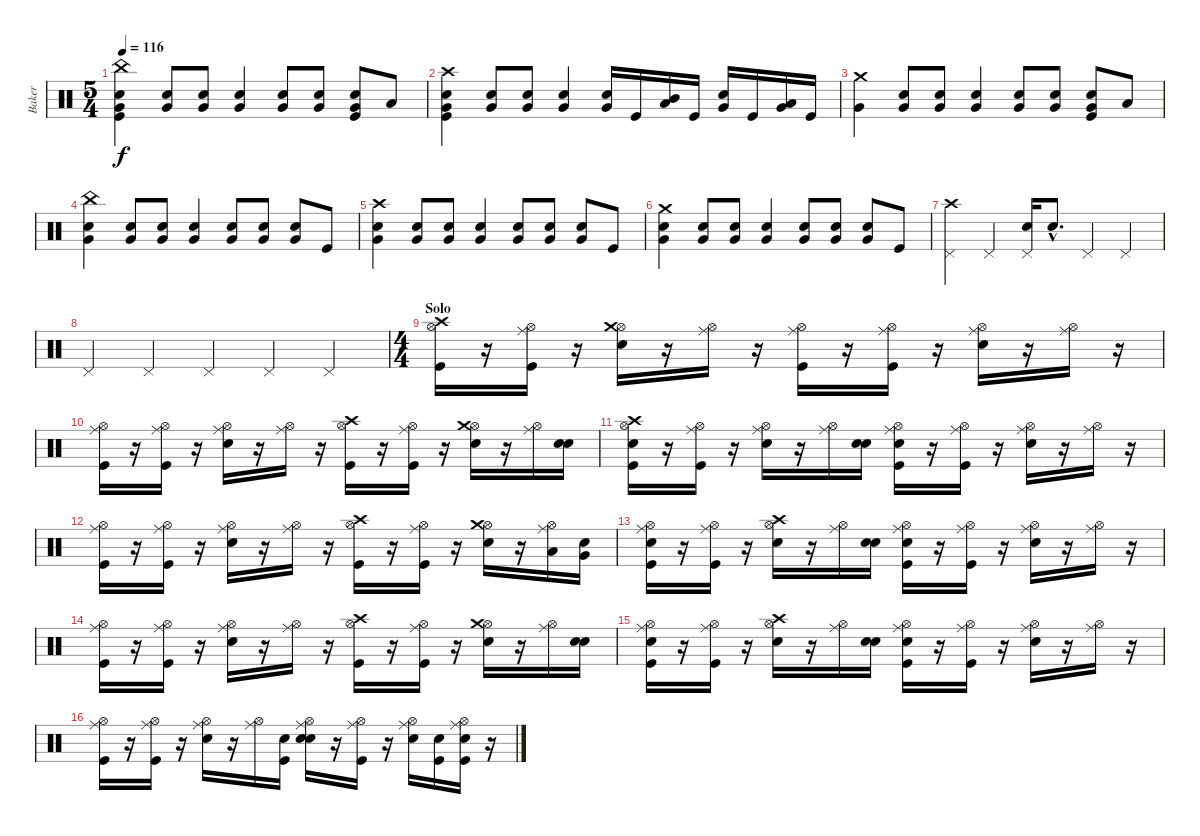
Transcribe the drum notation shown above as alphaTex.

\track ("Baker" "Baker") {instrument percussion}
\staff {score}
\articulation defaults
\ts (5 4)
\tempo 116
\clef neutral
\ks c
("Kick (hit)" "Electric Snare (hit)" "Very Low Tom (hit)" "China (hit)").4{dy f} ("Electric Snare (hit)" "Very Low Tom (hit)").8 ("Electric Snare (hit)" "Very Low Tom (hit)").8 ("Electric Snare (hit)" "Very Low Tom (hit)").4 ("Electric Snare (hit)" "Very Low Tom (hit)").8 ("Electric Snare (hit)" "Very Low Tom (hit)").8 ("Kick (hit)" "Electric Snare (hit)" "Very Low Tom (hit)").8 "Low Floor Tom (hit)".8 |
("Kick (hit)" "Electric Snare (hit)" "Very Low Tom (hit)" "Crash high (hit)").4 ("Electric Snare (hit)" "Very Low Tom (hit)").8 ("Electric Snare (hit)" "Very Low Tom (hit)").8 ("Electric Snare (hit)" "Very Low Tom (hit)").4 ("Electric Snare (hit)" "Very Low Tom (hit)").16 "Kick (hit)".16 ("Low Tom (hit)" "Mid Tom (hit)").16 "Kick (hit)".16 ("Electric Snare (hit)" "Very Low Tom (hit)").16 "Kick (hit)".16 ("Low Floor Tom (hit)" "Very Low Tom (hit)").16 "Kick (hit)".16 |
("Very Low Tom (hit)" "Crash medium (hit)").4 ("Electric Snare (hit)" "Very Low Tom (hit)").8 ("Electric Snare (hit)" "Very Low Tom (hit)").8 ("Electric Snare (hit)" "Very Low Tom (hit)").4 ("Electric Snare (hit)" "Very Low Tom (hit)").8 ("Electric Snare (hit)" "Very Low Tom (hit)").8 ("Kick (hit)" "Electric Snare (hit)" "Very Low Tom (hit)").8 "Low Floor Tom (hit)".8 |
("Electric Snare (hit)" "Very Low Tom (hit)" "China (hit)").4 ("Electric Snare (hit)" "Very Low Tom (hit)").8 ("Electric Snare (hit)" "Very Low Tom (hit)").8 ("Electric Snare (hit)" "Very Low Tom (hit)").4 ("Electric Snare (hit)" "Very Low Tom (hit)").8 ("Electric Snare (hit)" "Very Low Tom (hit)").8 ("Electric Snare (hit)" "Very Low Tom (hit)").8 "Kick (hit)".8 |
("Electric Snare (hit)" "Very Low Tom (hit)" "Crash high (hit)").4 ("Electric Snare (hit)" "Very Low Tom (hit)").8 ("Electric Snare (hit)" "Very Low Tom (hit)").8 ("Electric Snare (hit)" "Very Low Tom (hit)").4 ("Electric Snare (hit)" "Very Low Tom (hit)").8 ("Electric Snare (hit)" "Very Low Tom (hit)").8 ("Electric Snare (hit)" "Very Low Tom (hit)").8 "Kick (hit)".8 |
("Electric Snare (hit)" "Very Low Tom (hit)" "Crash medium (hit)").4 ("Electric Snare (hit)" "Very Low Tom (hit)").8 ("Electric Snare (hit)" "Very Low Tom (hit)").8 ("Electric Snare (hit)" "Very Low Tom (hit)").4 ("Electric Snare (hit)" "Very Low Tom (hit)").8 ("Electric Snare (hit)" "Very Low Tom (hit)").8 ("Electric Snare (hit)" "Very Low Tom (hit)").8 "Kick (hit)".8 |
("Pedal Hi-Hat (hit)" "Crash high (hit)").4 "Pedal Hi-Hat (hit)".4 ("Electric Snare (hit)" "Pedal Hi-Hat (hit)").16 "Electric Snare (hit)"{hac}.8{d} "Pedal Hi-Hat (hit)".4 "Pedal Hi-Hat (hit)".4 |
"Pedal Hi-Hat (hit)".4 "Pedal Hi-Hat (hit)".4 "Pedal Hi-Hat (hit)".4 "Pedal Hi-Hat (hit)".4 "Pedal Hi-Hat (hit)".4 |
\ts (4 4)
\section ("" "Solo")
("Kick (hit)" "Hi-Hat (open)" "Crash high (hit)").16 r.16 ("Kick (hit)" "Hi-Hat (open)" "Ride (middle)").16 r.16 ("Electric Snare (hit)" "Hi-Hat (open)" "Crash medium (hit)").16 r.16 ("Hi-Hat (open)" "Ride (middle)").16 r.16 ("Kick (hit)" "Hi-Hat (open)" "Ride (middle)").16 r.16 ("Kick (hit)" "Hi-Hat (open)" "Ride (middle)").16 r.16 ("Electric Snare (hit)" "Hi-Hat (open)" "Ride (middle)").16 r.16 ("Hi-Hat (open)" "Ride (middle)").16 r.16 |
("Kick (hit)" "Hi-Hat (open)" "Ride (middle)").16 r.16 ("Kick (hit)" "Hi-Hat (open)" "Ride (middle)").16 r.16 ("Electric Snare (hit)" "Hi-Hat (open)" "Ride (middle)").16 r.16 ("Hi-Hat (open)" "Ride (middle)").16 r.16 ("Kick (hit)" "Hi-Hat (open)" "Crash high (hit)").16 r.16 ("Kick (hit)" "Hi-Hat (open)" "Ride (middle)").16 r.16 ("Electric Snare (hit)" "Hi-Hat (open)" "Crash medium (hit)").16 r.16 ("Hi-Hat (open)" "Ride (middle)").16 ("Snare (hit)" "Electric Snare (hit)").16 |
("Snare (hit)" "Kick (hit)" "Hi-Hat (open)" "Crash high (hit)").16 r.16 ("Kick (hit)" "Hi-Hat (open)" "Ride (middle)").16 r.16 ("Electric Snare (hit)" "Hi-Hat (open)" "Ride (middle)").16 r.16 ("Hi-Hat (open)" "Ride (middle)").16 ("Snare (hit)" "Electric Snare (hit)").16 ("Snare (hit)" "Kick (hit)" "Hi-Hat (open)" "Ride (middle)").16 r.16 ("Kick (hit)" "Hi-Hat (open)" "Ride (middle)").16 r.16 ("Electric Snare (hit)" "Hi-Hat (open)" "Ride (middle)").16 r.16 ("Hi-Hat (open)" "Ride (middle)").16 r.16 |
("Kick (hit)" "Hi-Hat (open)" "Ride (middle)").16 r.16 ("Kick (hit)" "Hi-Hat (open)" "Ride (middle)").16 r.16 ("Electric Snare (hit)" "Hi-Hat (open)" "Ride (middle)").16 r.16 ("Hi-Hat (open)" "Ride (middle)").16 r.16 ("Kick (hit)" "Hi-Hat (open)" "Crash high (hit)").16 r.16 ("Kick (hit)" "Hi-Hat (open)" "Ride (middle)").16 r.16 ("Electric Snare (hit)" "Hi-Hat (open)" "Crash medium (hit)").16 r.16 ("Low Tom (hit)" "Hi-Hat (open)" "Ride (middle)").16 ("Snare (hit)" "Very Low Tom (hit)").16 |
("Snare (hit)" "Kick (hit)" "Hi-Hat (open)" "Ride (middle)").16 r.16 ("Kick (hit)" "Hi-Hat (open)" "Ride (middle)").16 r.16 ("Electric Snare (hit)" "Hi-Hat (open)" "Crash high (hit)").16 r.16 ("Hi-Hat (open)" "Ride (middle)").16 ("Snare (hit)" "Electric Snare (hit)").16 ("Snare (hit)" "Kick (hit)" "Hi-Hat (open)" "Ride (middle)").16 r.16 ("Kick (hit)" "Hi-Hat (open)" "Ride (middle)").16 r.16 ("Electric Snare (hit)" "Hi-Hat (open)" "Ride (middle)").16 r.16 ("Hi-Hat (open)" "Ride (middle)").16 r.16 |
("Kick (hit)" "Hi-Hat (open)" "Ride (middle)").16 r.16 ("Kick (hit)" "Hi-Hat (open)" "Ride (middle)").16 r.16 ("Electric Snare (hit)" "Hi-Hat (open)" "Ride (middle)").16 r.16 ("Hi-Hat (open)" "Ride (middle)").16 r.16 ("Kick (hit)" "Hi-Hat (open)" "Crash high (hit)").16 r.16 ("Kick (hit)" "Hi-Hat (open)" "Ride (middle)").16 r.16 ("Electric Snare (hit)" "Hi-Hat (open)" "Crash medium (hit)").16 r.16 ("Hi-Hat (open)" "Ride (middle)").16 ("Snare (hit)" "Electric Snare (hit)").16 |
("Snare (hit)" "Kick (hit)" "Hi-Hat (open)" "Ride (middle)").16 r.16 ("Kick (hit)" "Hi-Hat (open)" "Ride (middle)").16 r.16 ("Electric Snare (hit)" "Hi-Hat (open)" "Crash high (hit)").16 r.16 ("Hi-Hat (open)" "Ride (middle)").16 ("Snare (hit)" "Electric Snare (hit)").16 ("Snare (hit)" "Kick (hit)" "Hi-Hat (open)" "Ride (middle)").16 r.16 ("Kick (hit)" "Hi-Hat (open)" "Ride (middle)").16 r.16 ("Electric Snare (hit)" "Hi-Hat (open)" "Ride (middle)").16 r.16 ("Hi-Hat (open)" "Ride (middle)").16 r.16 |
("Kick (hit)" "Hi-Hat (open)" "Ride (middle)").16 r.16 ("Kick (hit)" "Hi-Hat (open)" "Ride (middle)").16 r.16 ("Electric Snare (hit)" "Hi-Hat (open)" "Ride (middle)").16 r.16 ("Hi-Hat (open)" "Ride (middle)").16 ("Snare (hit)" "Kick (hit)").16 ("Snare (hit)" "Electric Snare (hit)" "Hi-Hat (open)" "Ride (middle)").16 r.16 ("Kick (hit)" "Hi-Hat (open)" "Ride (middle)").16 r.16 ("Electric Snare (hit)" "Hi-Hat (open)" "Ride (middle)").16 ("Snare (hit)" "Kick (hit)").16 ("Snare (hit)" "Kick (hit)" "Hi-Hat (open)" "Ride (middle)").16 r.16
